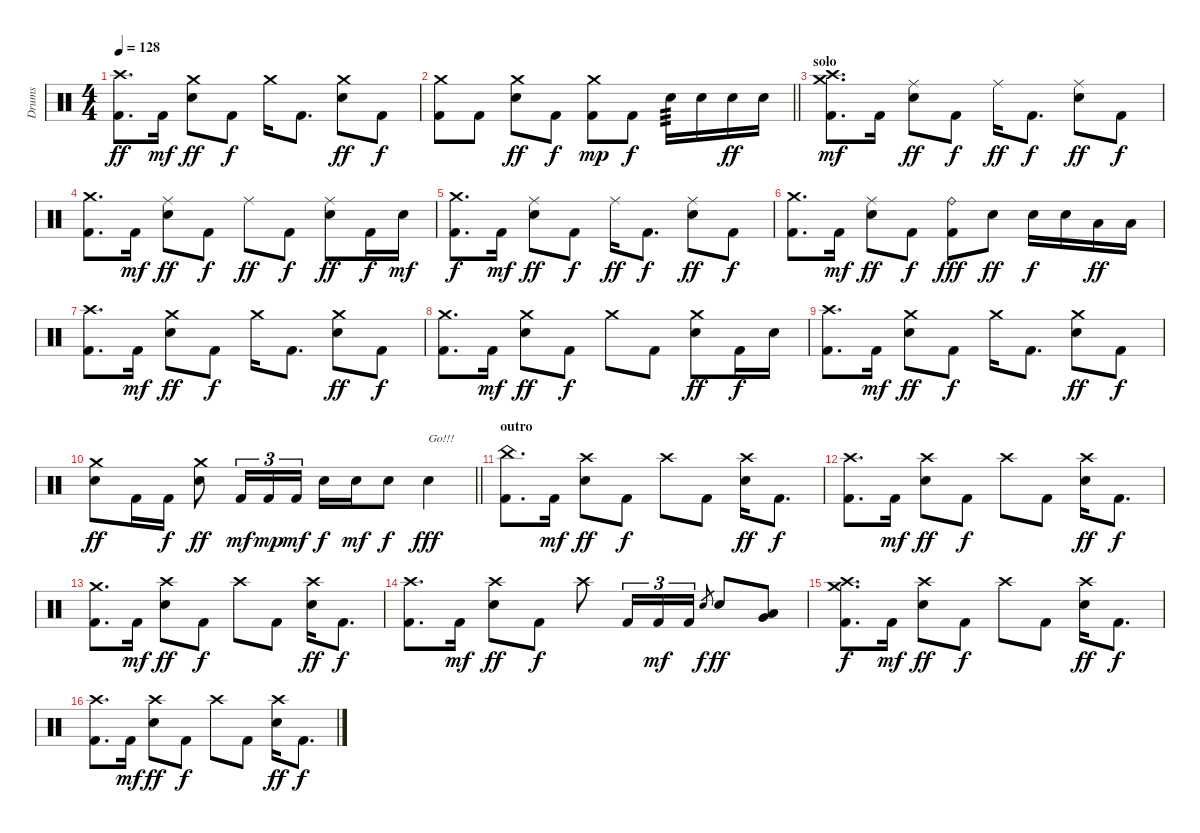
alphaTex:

\track ("Drums" "Drums") {instrument percussion}
\staff {score}
\articulation defaults
\ts (4 4)
\tempo 128
\clef neutral
\ks c
("Crash high (hit)" "Kick (hit) 2").8{d dy ff} "Kick (hit) 2".16{dy mf} ("Crash medium (hit)" "Electric Snare (hit)").8{dy ff} "Kick (hit) 2".8{dy f} "Crash medium (hit)".16 "Kick (hit) 2".8{d} ("Crash medium (hit)" "Electric Snare (hit)").8{dy ff} "Kick (hit) 2".8{dy f} |
\barLineRight lightlight
("Crash medium (hit)" "Kick (hit) 2").8 "Kick (hit) 2".8 ("Crash medium (hit)" "Electric Snare (hit)").8{dy ff} "Kick (hit) 2".8{dy f} ("Crash medium (hit)" "Kick (hit) 2").8{dy mp} "Kick (hit) 2".8{dy f} "Electric Snare (hit)".16{tp 3} "Electric Snare (hit)".16 "Electric Snare (hit)".16{dy ff} "Electric Snare (hit)".16 |
\section ("" "solo")
("Crash medium (hit)" "Crash high (hit)" "Kick (hit) 2").8{d dy mf} "Kick (hit) 2".16 ("Ride (middle)" "Electric Snare (hit)").8{dy ff} "Kick (hit) 2".8{dy f} "Ride (middle)".16{dy ff} "Kick (hit) 2".8{d dy f} ("Ride (middle)" "Electric Snare (hit)").8{dy ff} "Kick (hit) 2".8{dy f} |
("Crash medium (hit)" "Kick (hit) 2").8{d} "Kick (hit) 2".16{dy mf} ("Ride (middle)" "Electric Snare (hit)").8{dy ff} "Kick (hit) 2".8{dy f} "Ride (middle)".8{dy ff} "Kick (hit) 2".8{dy f} ("Ride (middle)" "Electric Snare (hit)").8{dy ff} "Kick (hit) 2".16{dy f} "Electric Snare (hit)".16{dy mf} |
("Crash medium (hit)" "Kick (hit) 2").8{d dy f} "Kick (hit) 2".16{dy mf} ("Ride (middle)" "Electric Snare (hit)").8{dy ff} "Kick (hit) 2".8{dy f} "Ride (middle)".16{dy ff} "Kick (hit) 2".8{d dy f} ("Ride (middle)" "Electric Snare (hit)").8{dy ff} "Kick (hit) 2".8{dy f} |
("Crash medium (hit)" "Kick (hit) 2").8{d} "Kick (hit) 2".16{dy mf} ("Ride (middle)" "Electric Snare (hit)").8{dy ff} "Kick (hit) 2".8{dy f} ("Ride (bell)" "Kick (hit) 2").8{dy fff} "Electric Snare (hit)".8{dy ff} "Electric Snare (hit)".16{dy f} "Electric Snare (hit)".16 "Low Tom (hit)".16{dy ff} "Low Tom (hit)".16 |
("Crash high (hit)" "Kick (hit) 2").8{d} "Kick (hit) 2".16{dy mf} ("Crash medium (hit)" "Electric Snare (hit)").8{dy ff} "Kick (hit) 2".8{dy f} "Crash medium (hit)".16 "Kick (hit) 2".8{d} ("Crash medium (hit)" "Electric Snare (hit)").8{dy ff} "Kick (hit) 2".8{dy f} |
("Crash medium (hit)" "Kick (hit) 2").8{d} "Kick (hit) 2".16{dy mf} ("Crash medium (hit)" "Electric Snare (hit)").8{dy ff} "Kick (hit) 2".8{dy f} "Crash medium (hit)".8 "Kick (hit) 2".8 ("Crash medium (hit)" "Electric Snare (hit)").8{dy ff} "Kick (hit) 2".16{dy f} "Electric Snare (hit)".16 |
("Crash high (hit)" "Kick (hit) 2").8{d} "Kick (hit) 2".16{dy mf} ("Crash medium (hit)" "Electric Snare (hit)").8{dy ff} "Kick (hit) 2".8{dy f} "Crash medium (hit)".16 "Kick (hit) 2".8{d} ("Crash medium (hit)" "Electric Snare (hit)").8{dy ff} "Kick (hit) 2".8{dy f} |
\barLineRight lightlight
("Crash medium (hit)" "Electric Snare (hit)").8{dy ff} "Kick (hit) 2".16 "Kick (hit) 2".16{dy f} ("Crash medium (hit)" "Electric Snare (hit)").8{dy ff} "Kick (hit) 2".16{tu (3 2) dy mf} "Kick (hit) 2".16{tu (3 2) dy mp} "Kick (hit) 2".16{tu (3 2) dy mf} "Electric Snare (hit)".16{dy f} "Electric Snare (hit)".16{dy mf} "Electric Snare (hit)".8{dy f} "Electric Snare (hit)".4{txt "Go!!!" dy fff} |
\section ("" "outro")
("China (hit)" "Kick (hit) 2").8{d} "Kick (hit) 2".16{dy mf} ("Crash high (hit)" "Electric Snare (hit)").8{dy ff} "Kick (hit) 2".8{dy f} "Crash high (hit)".8 "Kick (hit) 2".8 ("Crash high (hit)" "Electric Snare (hit)").16{dy ff} "Kick (hit) 2".8{d dy f} |
("Crash high (hit)" "Kick (hit) 2").8{d} "Kick (hit) 2".16{dy mf} ("Crash high (hit)" "Electric Snare (hit)").8{dy ff} "Kick (hit) 2".8{dy f} "Crash high (hit)".8 "Kick (hit) 2".8 ("Crash high (hit)" "Electric Snare (hit)").16{dy ff} "Kick (hit) 2".8{d dy f} |
("Crash medium (hit)" "Kick (hit) 2").8{d} "Kick (hit) 2".16{dy mf} ("Crash high (hit)" "Electric Snare (hit)").8{dy ff} "Kick (hit) 2".8{dy f} "Crash high (hit)".8 "Kick (hit) 2".8 ("Crash high (hit)" "Electric Snare (hit)").16{dy ff} "Kick (hit) 2".8{d dy f} |
("Crash high (hit)" "Kick (hit) 2").8{d} "Kick (hit) 2".16{dy mf} ("Crash high (hit)" "Electric Snare (hit)").8{dy ff} "Kick (hit) 2".8{dy f} "Crash high (hit)".8 "Kick (hit) 2".16{tu (3 2)} "Kick (hit) 2".16{tu (3 2) dy mf} "Kick (hit) 2".16{tu (3 2)} "Snare (hit) 2"{x}.8{gr dy f} "Electric Snare (hit)".8{dy ff} ("Very Low Tom (hit)" "Low Tom (hit)").8 |
("Crash medium (hit)" "Crash high (hit)" "Kick (hit) 2").8{d dy f} "Kick (hit) 2".16{dy mf} ("Crash high (hit)" "Electric Snare (hit)").8{dy ff} "Kick (hit) 2".8{dy f} "Crash high (hit)".8 "Kick (hit) 2".8 ("Crash high (hit)" "Electric Snare (hit)").16{dy ff} "Kick (hit) 2".8{d dy f} |
("Crash high (hit)" "Kick (hit) 2").8{d} "Kick (hit) 2".16{dy mf} ("Crash high (hit)" "Electric Snare (hit)").8{dy ff} "Kick (hit) 2".8{dy f} "Crash high (hit)".8 "Kick (hit) 2".8 ("Crash high (hit)" "Electric Snare (hit)").16{dy ff} "Kick (hit) 2".8{d dy f}
